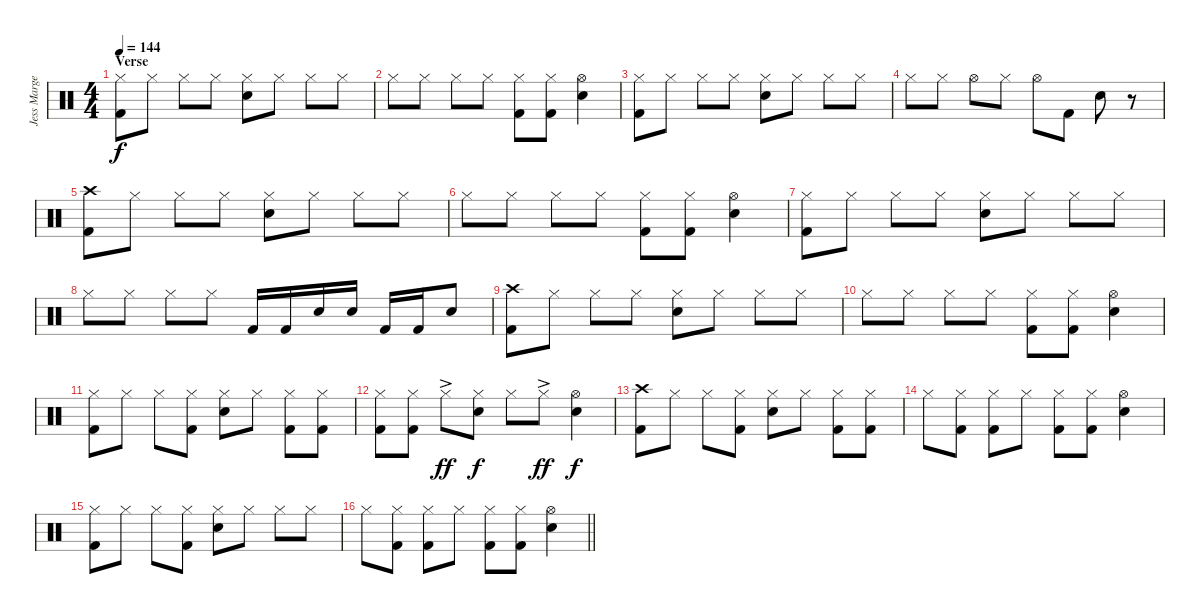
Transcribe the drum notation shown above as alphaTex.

\track ("Jess Margera" "Jess Marge") {instrument percussion}
\staff {score}
\articulation defaults
\ts (4 4)
\section ("" "Verse")
\tempo 144
\clef neutral
\ks c
("Hi-Hat (closed)" "Kick (hit) 2").8{dy f} "Hi-Hat (closed)".8 "Hi-Hat (closed)".8 "Hi-Hat (closed)".8 ("Hi-Hat (closed)" "Electric Snare (hit)").8 "Hi-Hat (closed)".8 "Hi-Hat (closed)".8 "Hi-Hat (closed)".8 |
"Hi-Hat (closed)".8 "Hi-Hat (closed)".8 "Hi-Hat (closed)".8 "Hi-Hat (closed)".8 ("Hi-Hat (closed)" "Kick (hit) 2").8 ("Hi-Hat (closed)" "Kick (hit) 2").8 ("Hi-Hat (open)" "Electric Snare (hit)").4 |
("Hi-Hat (closed)" "Kick (hit) 2").8 "Hi-Hat (closed)".8 "Hi-Hat (closed)".8 "Hi-Hat (closed)".8 ("Hi-Hat (closed)" "Electric Snare (hit)").8 "Hi-Hat (closed)".8 "Hi-Hat (closed)".8 "Hi-Hat (closed)".8 |
"Hi-Hat (closed)".8 "Hi-Hat (closed)".8 "Hi-Hat (open)".8 "Hi-Hat (closed)".8 "Hi-Hat (open)".8 "Kick (hit) 2".8 "Electric Snare (hit)".8 r.8 |
("Crash high (hit)" "Kick (hit) 2").8 "Hi-Hat (closed)".8 "Hi-Hat (closed)".8 "Hi-Hat (closed)".8 ("Hi-Hat (closed)" "Electric Snare (hit)").8 "Hi-Hat (closed)".8 "Hi-Hat (closed)".8 "Hi-Hat (closed)".8 |
"Hi-Hat (closed)".8 "Hi-Hat (closed)".8 "Hi-Hat (closed)".8 "Hi-Hat (closed)".8 ("Hi-Hat (closed)" "Kick (hit) 2").8 ("Hi-Hat (closed)" "Kick (hit) 2").8 ("Hi-Hat (open)" "Electric Snare (hit)").4 |
("Hi-Hat (closed)" "Kick (hit) 2").8 "Hi-Hat (closed)".8 "Hi-Hat (closed)".8 "Hi-Hat (closed)".8 ("Hi-Hat (closed)" "Electric Snare (hit)").8 "Hi-Hat (closed)".8 "Hi-Hat (closed)".8 "Hi-Hat (closed)".8 |
"Hi-Hat (closed)".8 "Hi-Hat (closed)".8 "Hi-Hat (closed)".8 "Hi-Hat (closed)".8 "Kick (hit) 2".16 "Kick (hit) 2".16 "Electric Snare (hit)".16 "Electric Snare (hit)".16 "Kick (hit) 2".16 "Kick (hit) 2".16 "Electric Snare (hit)".8 |
("Crash high (hit)" "Kick (hit) 2").8 "Hi-Hat (closed)".8 "Hi-Hat (closed)".8 "Hi-Hat (closed)".8 ("Hi-Hat (closed)" "Electric Snare (hit)").8 "Hi-Hat (closed)".8 "Hi-Hat (closed)".8 "Hi-Hat (closed)".8 |
"Hi-Hat (closed)".8 "Hi-Hat (closed)".8 "Hi-Hat (closed)".8 "Hi-Hat (closed)".8 ("Hi-Hat (closed)" "Kick (hit) 2").8 ("Hi-Hat (closed)" "Kick (hit) 2").8 ("Hi-Hat (open)" "Electric Snare (hit)").4 |
("Hi-Hat (closed)" "Kick (hit) 2").8 "Hi-Hat (closed)".8 "Hi-Hat (closed)".8 ("Hi-Hat (closed)" "Kick (hit) 2").8 ("Hi-Hat (closed)" "Electric Snare (hit)").8 "Hi-Hat (closed)".8 ("Hi-Hat (closed)" "Kick (hit) 2").8 ("Hi-Hat (closed)" "Kick (hit) 2").8 |
("Hi-Hat (closed)" "Kick (hit) 2").8 ("Hi-Hat (closed)" "Kick (hit) 2").8 "Hi-Hat (closed)"{ac}.8{dy ff} ("Hi-Hat (closed)" "Electric Snare (hit)").8{dy f} "Hi-Hat (closed)".8 "Hi-Hat (closed)"{ac}.8{dy ff} ("Hi-Hat (open)" "Electric Snare (hit)").4{dy f} |
("Crash high (hit)" "Kick (hit) 2").8 "Hi-Hat (closed)".8 "Hi-Hat (closed)".8 ("Hi-Hat (closed)" "Kick (hit) 2").8 ("Hi-Hat (closed)" "Electric Snare (hit)").8 "Hi-Hat (closed)".8 ("Hi-Hat (closed)" "Kick (hit) 2").8 ("Hi-Hat (closed)" "Kick (hit) 2").8 |
"Hi-Hat (closed)".8 ("Hi-Hat (closed)" "Kick (hit) 2").8 ("Hi-Hat (closed)" "Kick (hit) 2").8 "Hi-Hat (closed)".8 ("Hi-Hat (closed)" "Kick (hit) 2").8 ("Hi-Hat (closed)" "Kick (hit) 2").8 ("Hi-Hat (open)" "Electric Snare (hit)").4 |
("Hi-Hat (closed)" "Kick (hit) 2").8 "Hi-Hat (closed)".8 "Hi-Hat (closed)".8 ("Hi-Hat (closed)" "Kick (hit) 2").8 ("Hi-Hat (closed)" "Electric Snare (hit)").8 "Hi-Hat (closed)".8 "Hi-Hat (closed)".8 "Hi-Hat (closed)".8 |
\barLineRight lightlight "Hi-Hat (closed)".8
("Hi-Hat (closed)" "Kick (hit) 2").8 ("Hi-Hat (closed)" "Kick (hit) 2").8 "Hi-Hat (closed)".8 ("Hi-Hat (closed)" "Kick (hit) 2").8 ("Hi-Hat (closed)" "Kick (hit) 2").8 ("Hi-Hat (open)" "Electric Snare (hit)").4
